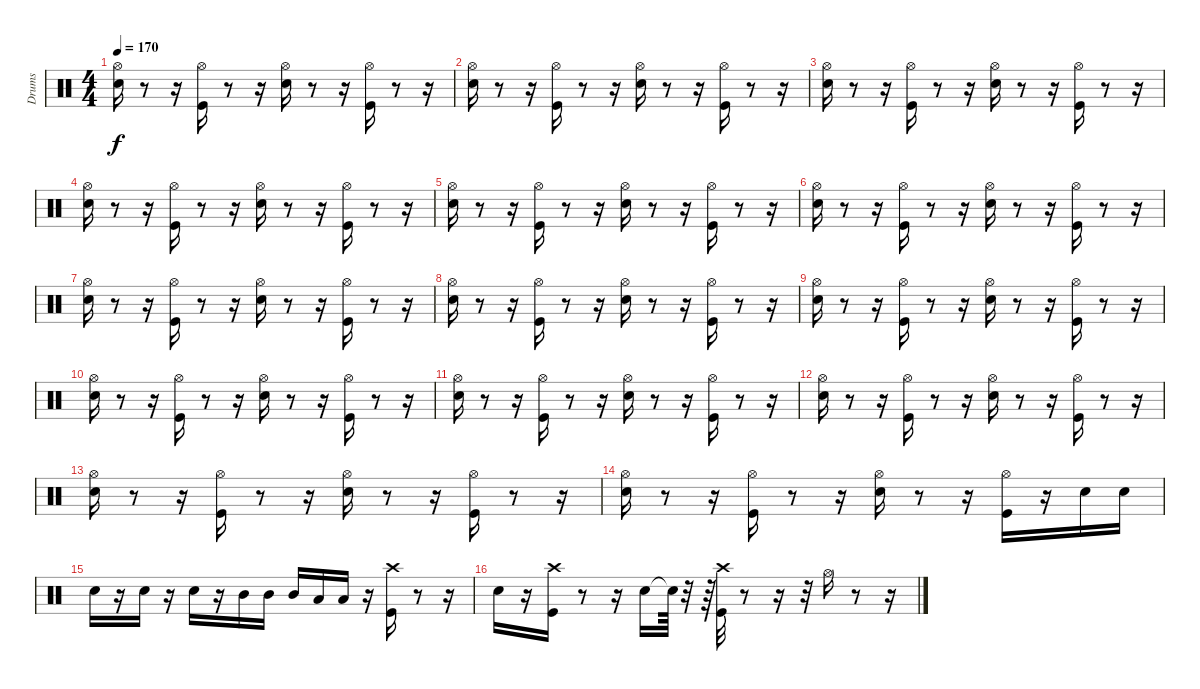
\track ("Drums" "Drums") {instrument percussion}
\staff {score}
\articulation defaults
\ts (4 4)
\tempo 170
\clef neutral
\ks c
("Hi-Hat (open)" "Snare (hit) 2").16{dy f} r.8 r.16 ("Kick (hit)" "Hi-Hat (open)").16 r.8 r.16 ("Snare (hit) 2" "Hi-Hat (open)").16 r.8 r.16 ("Kick (hit)" "Hi-Hat (open)").16 r.8 r.16 |
("Snare (hit) 2" "Hi-Hat (open)").16 r.8 r.16 ("Kick (hit)" "Hi-Hat (open)").16 r.8 r.16 ("Snare (hit) 2" "Hi-Hat (open)").16 r.8 r.16 ("Kick (hit)" "Hi-Hat (open)").16 r.8 r.16 |
("Snare (hit) 2" "Hi-Hat (open)").16 r.8 r.16 ("Kick (hit)" "Hi-Hat (open)").16 r.8 r.16 ("Snare (hit) 2" "Hi-Hat (open)").16 r.8 r.16 ("Kick (hit)" "Hi-Hat (open)").16 r.8 r.16 |
("Snare (hit) 2" "Hi-Hat (open)").16 r.8 r.16 ("Kick (hit)" "Hi-Hat (open)").16 r.8 r.16 ("Snare (hit) 2" "Hi-Hat (open)").16 r.8 r.16 ("Kick (hit)" "Hi-Hat (open)").16 r.8 r.16 |
("Snare (hit) 2" "Hi-Hat (open)").16 r.8 r.16 ("Kick (hit)" "Hi-Hat (open)").16 r.8 r.16 ("Snare (hit) 2" "Hi-Hat (open)").16 r.8 r.16 ("Kick (hit)" "Hi-Hat (open)").16 r.8 r.16 |
("Snare (hit) 2" "Hi-Hat (open)").16 r.8 r.16 ("Kick (hit)" "Hi-Hat (open)").16 r.8 r.16 ("Snare (hit) 2" "Hi-Hat (open)").16 r.8 r.16 ("Kick (hit)" "Hi-Hat (open)").16 r.8 r.16 |
("Snare (hit) 2" "Hi-Hat (open)").16 r.8 r.16 ("Kick (hit)" "Hi-Hat (open)").16 r.8 r.16 ("Snare (hit) 2" "Hi-Hat (open)").16 r.8 r.16 ("Kick (hit)" "Hi-Hat (open)").16 r.8 r.16 |
("Snare (hit) 2" "Hi-Hat (open)").16 r.8 r.16 ("Kick (hit)" "Hi-Hat (open)").16 r.8 r.16 ("Snare (hit) 2" "Hi-Hat (open)").16 r.8 r.16 ("Kick (hit)" "Hi-Hat (open)").16 r.8 r.16 |
("Snare (hit) 2" "Hi-Hat (open)").16 r.8 r.16 ("Kick (hit)" "Hi-Hat (open)").16 r.8 r.16 ("Snare (hit) 2" "Hi-Hat (open)").16 r.8 r.16 ("Kick (hit)" "Hi-Hat (open)").16 r.8 r.16 |
("Snare (hit) 2" "Hi-Hat (open)").16 r.8 r.16 ("Kick (hit)" "Hi-Hat (open)").16 r.8 r.16 ("Snare (hit) 2" "Hi-Hat (open)").16 r.8 r.16 ("Kick (hit)" "Hi-Hat (open)").16 r.8 r.16 |
("Snare (hit) 2" "Hi-Hat (open)").16 r.8 r.16 ("Kick (hit)" "Hi-Hat (open)").16 r.8 r.16 ("Snare (hit) 2" "Hi-Hat (open)").16 r.8 r.16 ("Kick (hit)" "Hi-Hat (open)").16 r.8 r.16 |
("Snare (hit) 2" "Hi-Hat (open)").16 r.8 r.16 ("Kick (hit)" "Hi-Hat (open)").16 r.8 r.16 ("Snare (hit) 2" "Hi-Hat (open)").16 r.8 r.16 ("Kick (hit)" "Hi-Hat (open)").16 r.8 r.16 |
("Snare (hit) 2" "Hi-Hat (open)").16 r.8 r.16 ("Kick (hit)" "Hi-Hat (open)").16 r.8 r.16 ("Snare (hit) 2" "Hi-Hat (open)").16 r.8 r.16 ("Kick (hit)" "Hi-Hat (open)").16 r.8 r.16 |
("Snare (hit) 2" "Hi-Hat (open)").16 r.8 r.16 ("Kick (hit)" "Hi-Hat (open)").16 r.8 r.16 ("Snare (hit) 2" "Hi-Hat (open)").16 r.8 r.16 ("Kick (hit)" "Hi-Hat (open)").16 r.16 "Snare (hit) 2".16 "Snare (hit) 2".16 |
"Snare (hit) 2".16 r.16 "Snare (hit) 2".16 r.16 "Snare (hit) 2".16 r.16 "Mid Tom (hit)".16 "Mid Tom (hit)".16 "Mid Tom (hit)".16 "Low Tom (hit)".16 "Low Tom (hit)".16 r.16 ("Kick (hit)" "Crash high (hit)").16 r.8 r.16 |
"Snare (hit) 2".16 r.16 ("Kick (hit)" "Crash high (hit)").16 r.8 r.16 "Snare (hit) 2".16 "Snare (hit)"{t}.64 r.32 r.64 ("Kick (hit)" "Crash high (hit)").32 r.8 r.16 r.32 "Hi-Hat (open)".16 r.8 r.16
